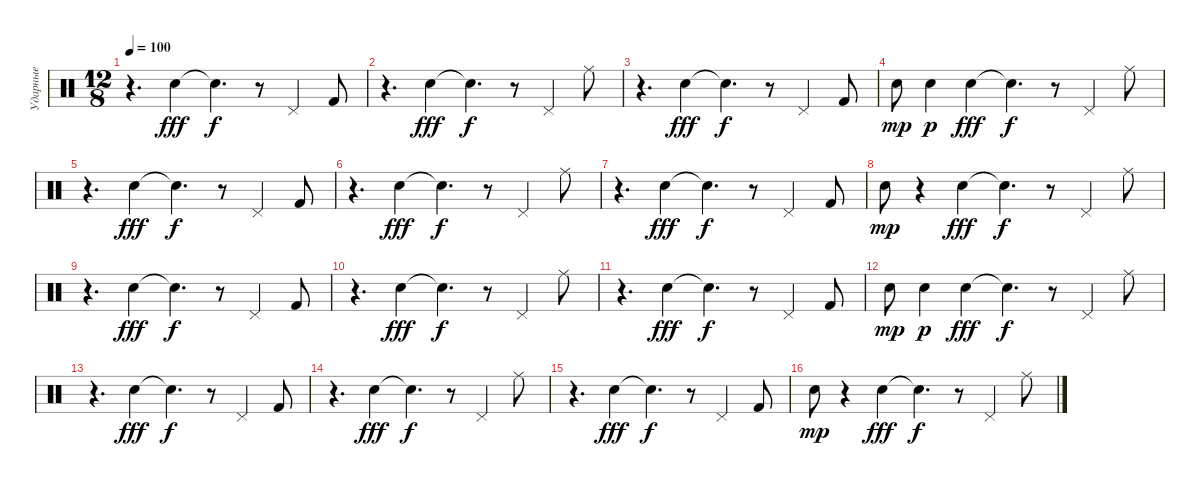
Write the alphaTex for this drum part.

\track ("Ударные" "Ударные") {instrument percussion}
\staff {score}
\articulation defaults
\ts (12 8)
\tempo 100
\clef neutral
\ks c
r.4{d dy f} "Electric Snare (hit)".4{dy fff} "Snare (hit)"{t}.4{d dy f} r.8 "Pedal Hi-Hat (hit)".4 "Kick (hit) 2".8 |
r.4{d} "Electric Snare (hit)".4{dy fff} "Snare (hit)"{t}.4{d dy f} r.8 "Pedal Hi-Hat (hit)".4 "Ride (middle)".8 |
r.4{d} "Electric Snare (hit)".4{dy fff} "Snare (hit)"{t}.4{d dy f} r.8 "Pedal Hi-Hat (hit)".4 "Kick (hit) 2".8 |
"Snare (hit) 2".8{dy mp} "Snare (hit) 2".4{dy p} "Electric Snare (hit)".4{dy fff} "Snare (hit)"{t}.4{d dy f} r.8 "Pedal Hi-Hat (hit)".4 "Ride (middle)".8 |
r.4{d} "Electric Snare (hit)".4{dy fff} "Snare (hit)"{t}.4{d dy f} r.8 "Pedal Hi-Hat (hit)".4 "Kick (hit) 2".8 |
r.4{d} "Electric Snare (hit)".4{dy fff} "Snare (hit)"{t}.4{d dy f} r.8 "Pedal Hi-Hat (hit)".4 "Ride (middle)".8 |
r.4{d} "Electric Snare (hit)".4{dy fff} "Snare (hit)"{t}.4{d dy f} r.8 "Pedal Hi-Hat (hit)".4 "Kick (hit) 2".8 |
"Snare (hit) 2".8{dy mp} r.4 "Electric Snare (hit)".4{dy fff} "Snare (hit)"{t}.4{d dy f} r.8 "Pedal Hi-Hat (hit)".4 "Ride (middle)".8 |
r.4{d} "Electric Snare (hit)".4{dy fff} "Snare (hit)"{t}.4{d dy f} r.8 "Pedal Hi-Hat (hit)".4 "Kick (hit) 2".8 |
r.4{d} "Electric Snare (hit)".4{dy fff} "Snare (hit)"{t}.4{d dy f} r.8 "Pedal Hi-Hat (hit)".4 "Ride (middle)".8 |
r.4{d} "Electric Snare (hit)".4{dy fff} "Snare (hit)"{t}.4{d dy f} r.8 "Pedal Hi-Hat (hit)".4 "Kick (hit) 2".8 |
"Snare (hit) 2".8{dy mp} "Snare (hit) 2".4{dy p} "Electric Snare (hit)".4{dy fff} "Snare (hit)"{t}.4{d dy f} r.8 "Pedal Hi-Hat (hit)".4 "Ride (middle)".8 |
r.4{d} "Electric Snare (hit)".4{dy fff} "Snare (hit)"{t}.4{d dy f} r.8 "Pedal Hi-Hat (hit)".4 "Kick (hit) 2".8 |
r.4{d} "Electric Snare (hit)".4{dy fff} "Snare (hit)"{t}.4{d dy f} r.8 "Pedal Hi-Hat (hit)".4 "Ride (middle)".8 |
r.4{d} "Electric Snare (hit)".4{dy fff} "Snare (hit)"{t}.4{d dy f} r.8 "Pedal Hi-Hat (hit)".4 "Kick (hit) 2".8 |
"Snare (hit) 2".8{dy mp} r.4 "Electric Snare (hit)".4{dy fff} "Snare (hit)"{t}.4{d dy f} r.8 "Pedal Hi-Hat (hit)".4 "Ride (middle)".8
